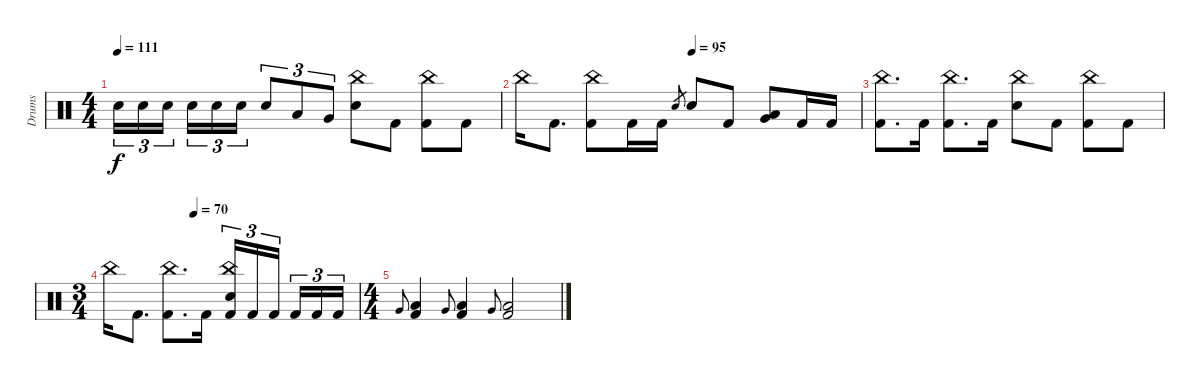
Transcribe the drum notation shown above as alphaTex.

\track ("Drums" "Drums") {instrument percussion}
\staff {score}
\articulation defaults
\ts (4 4)
\tempo 111
\clef neutral
\ks c "Electric Snare (hit)".16{tu (3 2) dy f} "Electric Snare (hit)".16{tu (3 2)} "Electric Snare (hit)".16{tu (3 2) beam splitsecondary} "Electric Snare (hit)".16{tu (3 2)} "Electric Snare (hit)".16{tu (3 2)} "Electric Snare (hit)".16{tu (3 2)} "Electric Snare (hit)".8{tu (3 2)} "Low Tom (hit)".8{tu (3 2)} "Very Low Tom (hit)".8{tu (3 2)}
("China (hit)" "Electric Snare (hit)").8 "Kick (hit) 2".8 ("China (hit)" "Kick (hit) 2").8 "Kick (hit) 2".8 |
\tempo (95 0.5)
"China (hit)".16 "Kick (hit) 2".8{d} ("China (hit)" "Kick (hit) 2").8 "Kick (hit) 2".16 "Kick (hit) 2".16 "Electric Snare (hit)".8{gr} "Electric Snare (hit)".8 "Kick (hit) 2".8 ("Very Low Tom (hit)" "Low Floor Tom (hit)").8 "Kick (hit) 2".16 "Kick (hit) 2".16 |
("China (hit)" "Kick (hit) 2").8{d} "Kick (hit) 2".16 ("China (hit)" "Kick (hit) 2").8{d} "Kick (hit) 2".16 ("China (hit)" "Electric Snare (hit)").8 "Kick (hit) 2".8 ("China (hit)" "Kick (hit) 2").8 "Kick (hit) 2".8 |
\ts (3 4)
\tempo (70 0.3333333333333333)
"China (hit)".16 "Kick (hit) 2".8{d} ("China (hit)" "Kick (hit) 2").8{d} "Kick (hit) 2".16 ("China (hit)" "Electric Snare (hit)" "Kick (hit) 2").16{tu (3 2)} "Kick (hit) 2".16{tu (3 2)} "Kick (hit) 2".16{tu (3 2) beam splitsecondary} "Kick (hit) 2".16{tu (3 2)} "Kick (hit) 2".16{tu (3 2)} "Kick (hit) 2".16{tu (3 2)} |
\ts (4 4)
"Very Low Tom (hit)".8{gr onbeat} ("Low Tom (hit)" "Kick (hit) 2").4 "Very Low Tom (hit)".8{gr onbeat} ("Low Tom (hit)" "Kick (hit) 2").4 "Very Low Tom (hit)".8{gr onbeat} ("Low Tom (hit)" "Kick (hit) 2").2
